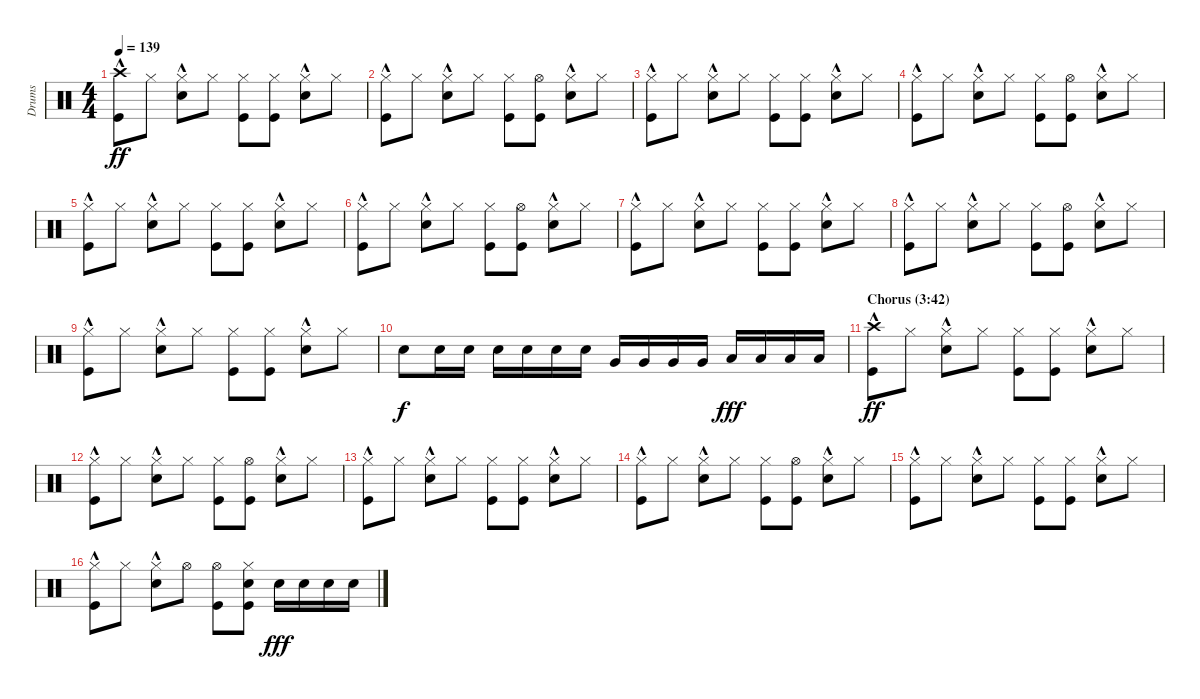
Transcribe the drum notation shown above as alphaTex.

\track ("Drums" "Drums") {instrument percussion}
\staff {score}
\articulation defaults
\ts (4 4)
\tempo 139
\clef neutral
\ks c
("Crash high (hit)" "Kick (hit)"{hac}).8{dy ff} "Hi-Hat (closed)".8 ("Hi-Hat (closed)" "Snare (hit) 2"{hac}).8 "Hi-Hat (closed)".8 ("Hi-Hat (closed)" "Kick (hit)").8 ("Hi-Hat (closed)" "Kick (hit)").8 ("Hi-Hat (closed)" "Snare (hit) 2"{hac}).8 "Hi-Hat (closed)".8 |
("Hi-Hat (closed)" "Kick (hit)"{hac}).8 "Hi-Hat (closed)".8 ("Hi-Hat (closed)" "Snare (hit) 2"{hac}).8 "Hi-Hat (closed)".8 ("Hi-Hat (closed)" "Kick (hit)").8 ("Hi-Hat (open)" "Kick (hit)").8 ("Hi-Hat (closed)" "Snare (hit) 2"{hac}).8 "Hi-Hat (closed)".8 |
("Hi-Hat (closed)" "Kick (hit)"{hac}).8 "Hi-Hat (closed)".8 ("Hi-Hat (closed)" "Snare (hit) 2"{hac}).8 "Hi-Hat (closed)".8 ("Hi-Hat (closed)" "Kick (hit)").8 ("Hi-Hat (closed)" "Kick (hit)").8 ("Hi-Hat (closed)" "Snare (hit) 2"{hac}).8 "Hi-Hat (closed)".8 |
("Hi-Hat (closed)" "Kick (hit)"{hac}).8 "Hi-Hat (closed)".8 ("Hi-Hat (closed)" "Snare (hit) 2"{hac}).8 "Hi-Hat (closed)".8 ("Hi-Hat (closed)" "Kick (hit)").8 ("Hi-Hat (open)" "Kick (hit)").8 ("Hi-Hat (closed)" "Snare (hit) 2"{hac}).8 "Hi-Hat (closed)".8 |
("Hi-Hat (closed)" "Kick (hit)"{hac}).8 "Hi-Hat (closed)".8 ("Hi-Hat (closed)" "Snare (hit) 2"{hac}).8 "Hi-Hat (closed)".8 ("Hi-Hat (closed)" "Kick (hit)").8 ("Hi-Hat (closed)" "Kick (hit)").8 ("Hi-Hat (closed)" "Snare (hit) 2"{hac}).8 "Hi-Hat (closed)".8 |
("Hi-Hat (closed)" "Kick (hit)"{hac}).8 "Hi-Hat (closed)".8 ("Hi-Hat (closed)" "Snare (hit) 2"{hac}).8 "Hi-Hat (closed)".8 ("Hi-Hat (closed)" "Kick (hit)").8 ("Hi-Hat (open)" "Kick (hit)").8 ("Hi-Hat (closed)" "Snare (hit) 2"{hac}).8 "Hi-Hat (closed)".8 |
("Hi-Hat (closed)" "Kick (hit)"{hac}).8 "Hi-Hat (closed)".8 ("Hi-Hat (closed)" "Snare (hit) 2"{hac}).8 "Hi-Hat (closed)".8 ("Hi-Hat (closed)" "Kick (hit)").8 ("Hi-Hat (closed)" "Kick (hit)").8 ("Hi-Hat (closed)" "Snare (hit) 2"{hac}).8 "Hi-Hat (closed)".8 |
("Hi-Hat (closed)" "Kick (hit)"{hac}).8 "Hi-Hat (closed)".8 ("Hi-Hat (closed)" "Snare (hit) 2"{hac}).8 "Hi-Hat (closed)".8 ("Hi-Hat (closed)" "Kick (hit)").8 ("Hi-Hat (open)" "Kick (hit)").8 ("Hi-Hat (closed)" "Snare (hit) 2"{hac}).8 "Hi-Hat (closed)".8 |
("Hi-Hat (closed)" "Kick (hit)"{hac}).8 "Hi-Hat (closed)".8 ("Hi-Hat (closed)" "Snare (hit) 2"{hac}).8 "Hi-Hat (closed)".8 ("Hi-Hat (closed)" "Kick (hit)").8 ("Hi-Hat (closed)" "Kick (hit)").8 ("Hi-Hat (closed)" "Snare (hit) 2"{hac}).8 "Hi-Hat (closed)".8 |
"Snare (hit) 2".8{dy f} "Snare (hit) 2".16 "Snare (hit) 2".16 "Snare (hit) 2".16 "Snare (hit) 2".16 "Snare (hit) 2".16 "Snare (hit) 2".16 "Very Low Tom (hit)".16 "Very Low Tom (hit)".16 "Very Low Tom (hit)".16 "Very Low Tom (hit)".16 "Low Floor Tom (hit)".16{dy fff} "Low Floor Tom (hit)".16 "Low Floor Tom (hit)".16 "Low Floor Tom (hit)".16 |
\section ("" "Chorus (3:42)")
("Crash high (hit)" "Kick (hit)"{hac}).8{dy ff} "Hi-Hat (closed)".8 ("Hi-Hat (closed)" "Snare (hit) 2"{hac}).8 "Hi-Hat (closed)".8 ("Hi-Hat (closed)" "Kick (hit)").8 ("Hi-Hat (closed)" "Kick (hit)").8 ("Hi-Hat (closed)" "Snare (hit) 2"{hac}).8 "Hi-Hat (closed)".8 |
("Hi-Hat (closed)" "Kick (hit)"{hac}).8 "Hi-Hat (closed)".8 ("Hi-Hat (closed)" "Snare (hit) 2"{hac}).8 "Hi-Hat (closed)".8 ("Hi-Hat (closed)" "Kick (hit)").8 ("Hi-Hat (open)" "Kick (hit)").8 ("Hi-Hat (closed)" "Snare (hit) 2"{hac}).8 "Hi-Hat (closed)".8 |
("Hi-Hat (closed)" "Kick (hit)"{hac}).8 "Hi-Hat (closed)".8 ("Hi-Hat (closed)" "Snare (hit) 2"{hac}).8 "Hi-Hat (closed)".8 ("Hi-Hat (closed)" "Kick (hit)").8 ("Hi-Hat (closed)" "Kick (hit)").8 ("Hi-Hat (closed)" "Snare (hit) 2"{hac}).8 "Hi-Hat (closed)".8 |
("Hi-Hat (closed)" "Kick (hit)"{hac}).8 "Hi-Hat (closed)".8 ("Hi-Hat (closed)" "Snare (hit) 2"{hac}).8 "Hi-Hat (closed)".8 ("Hi-Hat (closed)" "Kick (hit)").8 ("Hi-Hat (open)" "Kick (hit)").8 ("Hi-Hat (closed)" "Snare (hit) 2"{hac}).8 "Hi-Hat (closed)".8 |
("Hi-Hat (closed)" "Kick (hit)"{hac}).8 "Hi-Hat (closed)".8 ("Hi-Hat (closed)" "Snare (hit) 2"{hac}).8 "Hi-Hat (closed)".8 ("Hi-Hat (closed)" "Kick (hit)").8 ("Hi-Hat (closed)" "Kick (hit)").8 ("Hi-Hat (closed)" "Snare (hit) 2"{hac}).8 "Hi-Hat (closed)".8 |
("Hi-Hat (closed)" "Kick (hit)"{hac}).8 "Hi-Hat (closed)".8 ("Hi-Hat (closed)" "Snare (hit) 2"{hac}).8 "Hi-Hat (open)".8 ("Hi-Hat (open)" "Kick (hit)").8 ("Hi-Hat (closed)" "Snare (hit) 2" "Kick (hit)").8 "Snare (hit) 2".16{dy fff} "Snare (hit) 2".16 "Snare (hit) 2".16 "Snare (hit) 2".16
